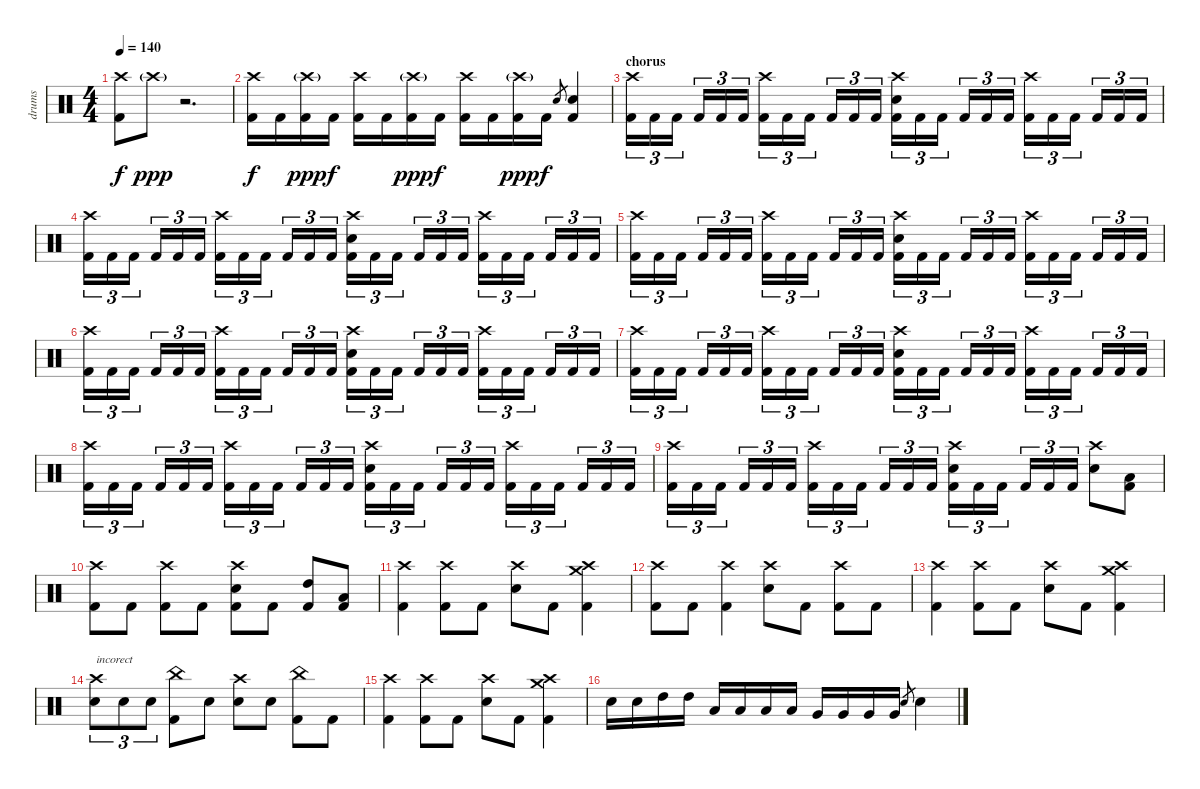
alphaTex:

\track ("drums" "drums") {instrument percussion}
\staff {score}
\articulation defaults
\ts (4 4)
\tempo 140
\clef neutral
\ks c
("Crash high (hit)"{pm} "Kick (hit) 2").8{dy f} "Crash high (hit)"{g}.8{dy ppp} r.2{d} |
\section ("" "")
("Crash high (hit)"{pm} "Kick (hit) 2").16{dy f} "Kick (hit) 2".16 ("Crash high (hit)"{g} "Kick (hit) 2").16{dy ppp} "Kick (hit) 2".16{dy f} ("Crash high (hit)"{pm} "Kick (hit) 2").16 "Kick (hit) 2".16 ("Crash high (hit)"{g} "Kick (hit) 2").16{dy ppp} "Kick (hit) 2".16{dy f} ("Crash high (hit)"{pm} "Kick (hit) 2").16 "Kick (hit) 2".16 ("Crash high (hit)"{g} "Kick (hit) 2").16{dy ppp} "Kick (hit) 2".16{dy f} "Electric Snare (hit)".8{gr} ("Electric Snare (hit)" "Kick (hit) 2").4 |
\section ("" "chorus")
("Crash high (hit)" "Kick (hit) 2").16{tu (3 2)} "Kick (hit) 2".16{tu (3 2)} "Kick (hit) 2".16{tu (3 2)} "Kick (hit) 2".16{tu (3 2)} "Kick (hit) 2".16{tu (3 2)} "Kick (hit) 2".16{tu (3 2)} ("Crash high (hit)" "Kick (hit) 2").16{tu (3 2)} "Kick (hit) 2".16{tu (3 2)} "Kick (hit) 2".16{tu (3 2)} "Kick (hit) 2".16{tu (3 2)} "Kick (hit) 2".16{tu (3 2)} "Kick (hit) 2".16{tu (3 2)} ("Crash high (hit)" "Electric Snare (hit)" "Kick (hit) 2").16{tu (3 2)} "Kick (hit) 2".16{tu (3 2)} "Kick (hit) 2".16{tu (3 2)} "Kick (hit) 2".16{tu (3 2)} "Kick (hit) 2".16{tu (3 2)} "Kick (hit) 2".16{tu (3 2)} ("Crash high (hit)" "Kick (hit) 2").16{tu (3 2)} "Kick (hit) 2".16{tu (3 2)} "Kick (hit) 2".16{tu (3 2)} "Kick (hit) 2".16{tu (3 2)} "Kick (hit) 2".16{tu (3 2)} "Kick (hit) 2".16{tu (3 2)} |
("Crash high (hit)" "Kick (hit) 2").16{tu (3 2)} "Kick (hit) 2".16{tu (3 2)} "Kick (hit) 2".16{tu (3 2)} "Kick (hit) 2".16{tu (3 2)} "Kick (hit) 2".16{tu (3 2)} "Kick (hit) 2".16{tu (3 2)} ("Crash high (hit)" "Kick (hit) 2").16{tu (3 2)} "Kick (hit) 2".16{tu (3 2)} "Kick (hit) 2".16{tu (3 2)} "Kick (hit) 2".16{tu (3 2)} "Kick (hit) 2".16{tu (3 2)} "Kick (hit) 2".16{tu (3 2)} ("Crash high (hit)" "Electric Snare (hit)" "Kick (hit) 2").16{tu (3 2)} "Kick (hit) 2".16{tu (3 2)} "Kick (hit) 2".16{tu (3 2)} "Kick (hit) 2".16{tu (3 2)} "Kick (hit) 2".16{tu (3 2)} "Kick (hit) 2".16{tu (3 2)} ("Crash high (hit)" "Kick (hit) 2").16{tu (3 2)} "Kick (hit) 2".16{tu (3 2)} "Kick (hit) 2".16{tu (3 2)} "Kick (hit) 2".16{tu (3 2)} "Kick (hit) 2".16{tu (3 2)} "Kick (hit) 2".16{tu (3 2)} |
("Crash high (hit)" "Kick (hit) 2").16{tu (3 2)} "Kick (hit) 2".16{tu (3 2)} "Kick (hit) 2".16{tu (3 2)} "Kick (hit) 2".16{tu (3 2)} "Kick (hit) 2".16{tu (3 2)} "Kick (hit) 2".16{tu (3 2)} ("Crash high (hit)" "Kick (hit) 2").16{tu (3 2)} "Kick (hit) 2".16{tu (3 2)} "Kick (hit) 2".16{tu (3 2)} "Kick (hit) 2".16{tu (3 2)} "Kick (hit) 2".16{tu (3 2)} "Kick (hit) 2".16{tu (3 2)} ("Crash high (hit)" "Electric Snare (hit)" "Kick (hit) 2").16{tu (3 2)} "Kick (hit) 2".16{tu (3 2)} "Kick (hit) 2".16{tu (3 2)} "Kick (hit) 2".16{tu (3 2)} "Kick (hit) 2".16{tu (3 2)} "Kick (hit) 2".16{tu (3 2)} ("Crash high (hit)" "Kick (hit) 2").16{tu (3 2)} "Kick (hit) 2".16{tu (3 2)} "Kick (hit) 2".16{tu (3 2)} "Kick (hit) 2".16{tu (3 2)} "Kick (hit) 2".16{tu (3 2)} "Kick (hit) 2".16{tu (3 2)} |
("Crash high (hit)" "Kick (hit) 2").16{tu (3 2)} "Kick (hit) 2".16{tu (3 2)} "Kick (hit) 2".16{tu (3 2)} "Kick (hit) 2".16{tu (3 2)} "Kick (hit) 2".16{tu (3 2)} "Kick (hit) 2".16{tu (3 2)} ("Crash high (hit)" "Kick (hit) 2").16{tu (3 2)} "Kick (hit) 2".16{tu (3 2)} "Kick (hit) 2".16{tu (3 2)} "Kick (hit) 2".16{tu (3 2)} "Kick (hit) 2".16{tu (3 2)} "Kick (hit) 2".16{tu (3 2)} ("Crash high (hit)" "Electric Snare (hit)" "Kick (hit) 2").16{tu (3 2)} "Kick (hit) 2".16{tu (3 2)} "Kick (hit) 2".16{tu (3 2)} "Kick (hit) 2".16{tu (3 2)} "Kick (hit) 2".16{tu (3 2)} "Kick (hit) 2".16{tu (3 2)} ("Crash high (hit)" "Kick (hit) 2").16{tu (3 2)} "Kick (hit) 2".16{tu (3 2)} "Kick (hit) 2".16{tu (3 2)} "Kick (hit) 2".16{tu (3 2)} "Kick (hit) 2".16{tu (3 2)} "Kick (hit) 2".16{tu (3 2)} |
("Crash high (hit)" "Kick (hit) 2").16{tu (3 2)} "Kick (hit) 2".16{tu (3 2)} "Kick (hit) 2".16{tu (3 2)} "Kick (hit) 2".16{tu (3 2)} "Kick (hit) 2".16{tu (3 2)} "Kick (hit) 2".16{tu (3 2)} ("Crash high (hit)" "Kick (hit) 2").16{tu (3 2)} "Kick (hit) 2".16{tu (3 2)} "Kick (hit) 2".16{tu (3 2)} "Kick (hit) 2".16{tu (3 2)} "Kick (hit) 2".16{tu (3 2)} "Kick (hit) 2".16{tu (3 2)} ("Crash high (hit)" "Electric Snare (hit)" "Kick (hit) 2").16{tu (3 2)} "Kick (hit) 2".16{tu (3 2)} "Kick (hit) 2".16{tu (3 2)} "Kick (hit) 2".16{tu (3 2)} "Kick (hit) 2".16{tu (3 2)} "Kick (hit) 2".16{tu (3 2)} ("Crash high (hit)" "Kick (hit) 2").16{tu (3 2)} "Kick (hit) 2".16{tu (3 2)} "Kick (hit) 2".16{tu (3 2)} "Kick (hit) 2".16{tu (3 2)} "Kick (hit) 2".16{tu (3 2)} "Kick (hit) 2".16{tu (3 2)} |
("Crash high (hit)" "Kick (hit) 2").16{tu (3 2)} "Kick (hit) 2".16{tu (3 2)} "Kick (hit) 2".16{tu (3 2)} "Kick (hit) 2".16{tu (3 2)} "Kick (hit) 2".16{tu (3 2)} "Kick (hit) 2".16{tu (3 2)} ("Crash high (hit)" "Kick (hit) 2").16{tu (3 2)} "Kick (hit) 2".16{tu (3 2)} "Kick (hit) 2".16{tu (3 2)} "Kick (hit) 2".16{tu (3 2)} "Kick (hit) 2".16{tu (3 2)} "Kick (hit) 2".16{tu (3 2)} ("Crash high (hit)" "Electric Snare (hit)" "Kick (hit) 2").16{tu (3 2)} "Kick (hit) 2".16{tu (3 2)} "Kick (hit) 2".16{tu (3 2)} "Kick (hit) 2".16{tu (3 2)} "Kick (hit) 2".16{tu (3 2)} "Kick (hit) 2".16{tu (3 2)} ("Crash high (hit)" "Kick (hit) 2").16{tu (3 2)} "Kick (hit) 2".16{tu (3 2)} "Kick (hit) 2".16{tu (3 2)} "Kick (hit) 2".16{tu (3 2)} "Kick (hit) 2".16{tu (3 2)} "Kick (hit) 2".16{tu (3 2)} |
("Crash high (hit)" "Kick (hit) 2").16{tu (3 2)} "Kick (hit) 2".16{tu (3 2)} "Kick (hit) 2".16{tu (3 2)} "Kick (hit) 2".16{tu (3 2)} "Kick (hit) 2".16{tu (3 2)} "Kick (hit) 2".16{tu (3 2)} ("Crash high (hit)" "Kick (hit) 2").16{tu (3 2)} "Kick (hit) 2".16{tu (3 2)} "Kick (hit) 2".16{tu (3 2)} "Kick (hit) 2".16{tu (3 2)} "Kick (hit) 2".16{tu (3 2)} "Kick (hit) 2".16{tu (3 2)} ("Crash high (hit)" "Electric Snare (hit)" "Kick (hit) 2").16{tu (3 2)} "Kick (hit) 2".16{tu (3 2)} "Kick (hit) 2".16{tu (3 2)} "Kick (hit) 2".16{tu (3 2)} "Kick (hit) 2".16{tu (3 2)} "Kick (hit) 2".16{tu (3 2)} ("Crash high (hit)" "Electric Snare (hit)").8 ("Low Tom (hit)" "Kick (hit) 2").8 |
\section ("" "")
("Crash high (hit)" "Kick (hit) 2").8 "Kick (hit) 2".8 ("Crash high (hit)" "Kick (hit) 2").8 "Kick (hit) 2".8 ("Crash high (hit)" "Electric Snare (hit)" "Kick (hit) 2").8 "Kick (hit) 2".8 ("High Tom (hit)" "Kick (hit) 2").8 ("Low Tom (hit)" "Kick (hit) 2").8 |
("Crash high (hit)" "Kick (hit) 2").4 ("Crash high (hit)" "Kick (hit) 2").8 "Kick (hit) 2".8 ("Crash high (hit)" "Electric Snare (hit)").8 "Kick (hit) 2".8 ("Crash high (hit)" "Crash medium (hit)" "Kick (hit) 2").4 |
("Crash high (hit)" "Kick (hit) 2").8 "Kick (hit) 2".8 ("Crash high (hit)" "Kick (hit) 2").4 ("Crash high (hit)" "Electric Snare (hit)").8 "Kick (hit) 2".8 ("Crash high (hit)" "Kick (hit) 2").8 "Kick (hit) 2".8 |
("Crash high (hit)" "Kick (hit) 2").4 ("Crash high (hit)" "Kick (hit) 2").8 "Kick (hit) 2".8 ("Crash high (hit)" "Electric Snare (hit)").8 "Kick (hit) 2".8 ("Crash high (hit)" "Crash medium (hit)" "Kick (hit) 2").4 |
("Crash high (hit)" "Electric Snare (hit)").8{tu (3 2) txt "incorect "} "Electric Snare (hit)".8{tu (3 2)} "Electric Snare (hit)".8{tu (3 2)} ("China (hit)" "Kick (hit) 2").8 "Electric Snare (hit)".8 ("Crash high (hit)" "Electric Snare (hit)").8 "Electric Snare (hit)".8 ("China (hit)" "Kick (hit) 2").8 "Kick (hit) 2".8 |
("Crash high (hit)" "Kick (hit) 2").4 ("Crash high (hit)" "Kick (hit) 2").8 "Kick (hit) 2".8 ("Crash high (hit)" "Electric Snare (hit)").8 "Kick (hit) 2".8 ("Crash high (hit)" "Crash medium (hit)" "Kick (hit) 2").4 |
"Electric Snare (hit)".16 "Electric Snare (hit)".16 "High Tom (hit)".16 "High Tom (hit)".16 "Low Tom (hit)".16 "Low Tom (hit)".16 "Low Tom (hit)".16 "Low Tom (hit)".16 "Very Low Tom (hit)".16 "Very Low Tom (hit)".16 "Very Low Tom (hit)".16 "Very Low Tom (hit)".16 "Electric Snare (hit)".8{gr} "Electric Snare (hit)".4
